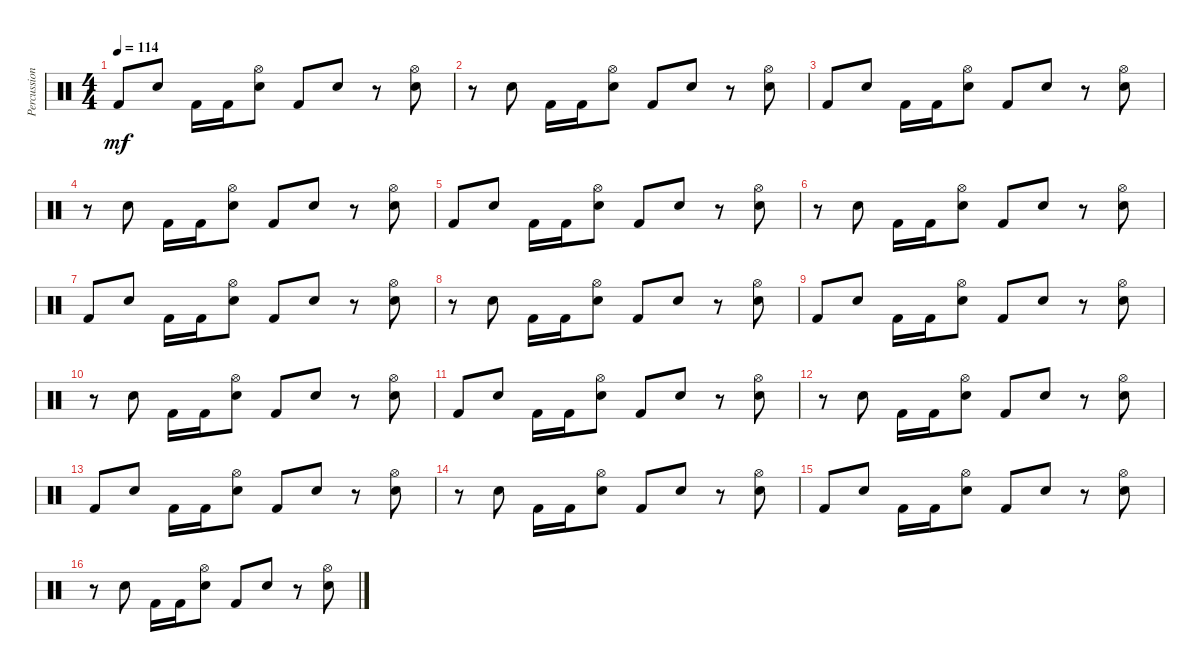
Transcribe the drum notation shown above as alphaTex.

\track ("Percussion" "Percussion") {instrument percussion}
\staff {score}
\articulation defaults
\ts (4 4)
\tempo 114
\clef neutral
\ks c "Kick (hit) 2".8{dy mf} "Snare (hit) 2".8 "Kick (hit) 2".16 "Kick (hit) 2".16
("Hi-Hat (open)" "Snare (hit) 2").8 "Kick (hit) 2".8 "Snare (hit) 2".8 r.8 ("Hi-Hat (open)" "Snare (hit) 2").8 |
r.8 "Snare (hit) 2".8 "Kick (hit) 2".16 "Kick (hit) 2".16 ("Hi-Hat (open)" "Snare (hit) 2").8 "Kick (hit) 2".8 "Snare (hit) 2".8 r.8 ("Hi-Hat (open)" "Snare (hit) 2").8 |
"Kick (hit) 2".8 "Snare (hit) 2".8 "Kick (hit) 2".16 "Kick (hit) 2".16 ("Hi-Hat (open)" "Snare (hit) 2").8 "Kick (hit) 2".8 "Snare (hit) 2".8 r.8 ("Hi-Hat (open)" "Snare (hit) 2").8 |
r.8 "Snare (hit) 2".8 "Kick (hit) 2".16 "Kick (hit) 2".16 ("Hi-Hat (open)" "Snare (hit) 2").8 "Kick (hit) 2".8 "Snare (hit) 2".8 r.8 ("Hi-Hat (open)" "Snare (hit) 2").8 |
"Kick (hit) 2".8 "Snare (hit) 2".8 "Kick (hit) 2".16 "Kick (hit) 2".16 ("Hi-Hat (open)" "Snare (hit) 2").8 "Kick (hit) 2".8 "Snare (hit) 2".8 r.8 ("Hi-Hat (open)" "Snare (hit) 2").8 |
r.8 "Snare (hit) 2".8 "Kick (hit) 2".16 "Kick (hit) 2".16 ("Hi-Hat (open)" "Snare (hit) 2").8 "Kick (hit) 2".8 "Snare (hit) 2".8 r.8 ("Hi-Hat (open)" "Snare (hit) 2").8 |
"Kick (hit) 2".8 "Snare (hit) 2".8 "Kick (hit) 2".16 "Kick (hit) 2".16 ("Hi-Hat (open)" "Snare (hit) 2").8 "Kick (hit) 2".8 "Snare (hit) 2".8 r.8 ("Hi-Hat (open)" "Snare (hit) 2").8 |
r.8 "Snare (hit) 2".8 "Kick (hit) 2".16 "Kick (hit) 2".16 ("Hi-Hat (open)" "Snare (hit) 2").8 "Kick (hit) 2".8 "Snare (hit) 2".8 r.8 ("Hi-Hat (open)" "Snare (hit) 2").8 |
"Kick (hit) 2".8 "Snare (hit) 2".8 "Kick (hit) 2".16 "Kick (hit) 2".16 ("Hi-Hat (open)" "Snare (hit) 2").8 "Kick (hit) 2".8 "Snare (hit) 2".8 r.8 ("Hi-Hat (open)" "Snare (hit) 2").8 |
r.8 "Snare (hit) 2".8 "Kick (hit) 2".16 "Kick (hit) 2".16 ("Hi-Hat (open)" "Snare (hit) 2").8 "Kick (hit) 2".8 "Snare (hit) 2".8 r.8 ("Hi-Hat (open)" "Snare (hit) 2").8 |
"Kick (hit) 2".8 "Snare (hit) 2".8 "Kick (hit) 2".16 "Kick (hit) 2".16 ("Hi-Hat (open)" "Snare (hit) 2").8 "Kick (hit) 2".8 "Snare (hit) 2".8 r.8 ("Hi-Hat (open)" "Snare (hit) 2").8 |
r.8 "Snare (hit) 2".8 "Kick (hit) 2".16 "Kick (hit) 2".16 ("Hi-Hat (open)" "Snare (hit) 2").8 "Kick (hit) 2".8 "Snare (hit) 2".8 r.8 ("Hi-Hat (open)" "Snare (hit) 2").8 |
"Kick (hit) 2".8 "Snare (hit) 2".8 "Kick (hit) 2".16 "Kick (hit) 2".16 ("Hi-Hat (open)" "Snare (hit) 2").8 "Kick (hit) 2".8 "Snare (hit) 2".8 r.8 ("Hi-Hat (open)" "Snare (hit) 2").8 |
r.8 "Snare (hit) 2".8 "Kick (hit) 2".16 "Kick (hit) 2".16 ("Hi-Hat (open)" "Snare (hit) 2").8 "Kick (hit) 2".8 "Snare (hit) 2".8 r.8 ("Hi-Hat (open)" "Snare (hit) 2").8 |
"Kick (hit) 2".8 "Snare (hit) 2".8 "Kick (hit) 2".16 "Kick (hit) 2".16 ("Hi-Hat (open)" "Snare (hit) 2").8 "Kick (hit) 2".8 "Snare (hit) 2".8 r.8 ("Hi-Hat (open)" "Snare (hit) 2").8 |
r.8 "Snare (hit) 2".8 "Kick (hit) 2".16 "Kick (hit) 2".16 ("Hi-Hat (open)" "Snare (hit) 2").8 "Kick (hit) 2".8 "Snare (hit) 2".8 r.8 ("Hi-Hat (open)" "Snare (hit) 2").8
